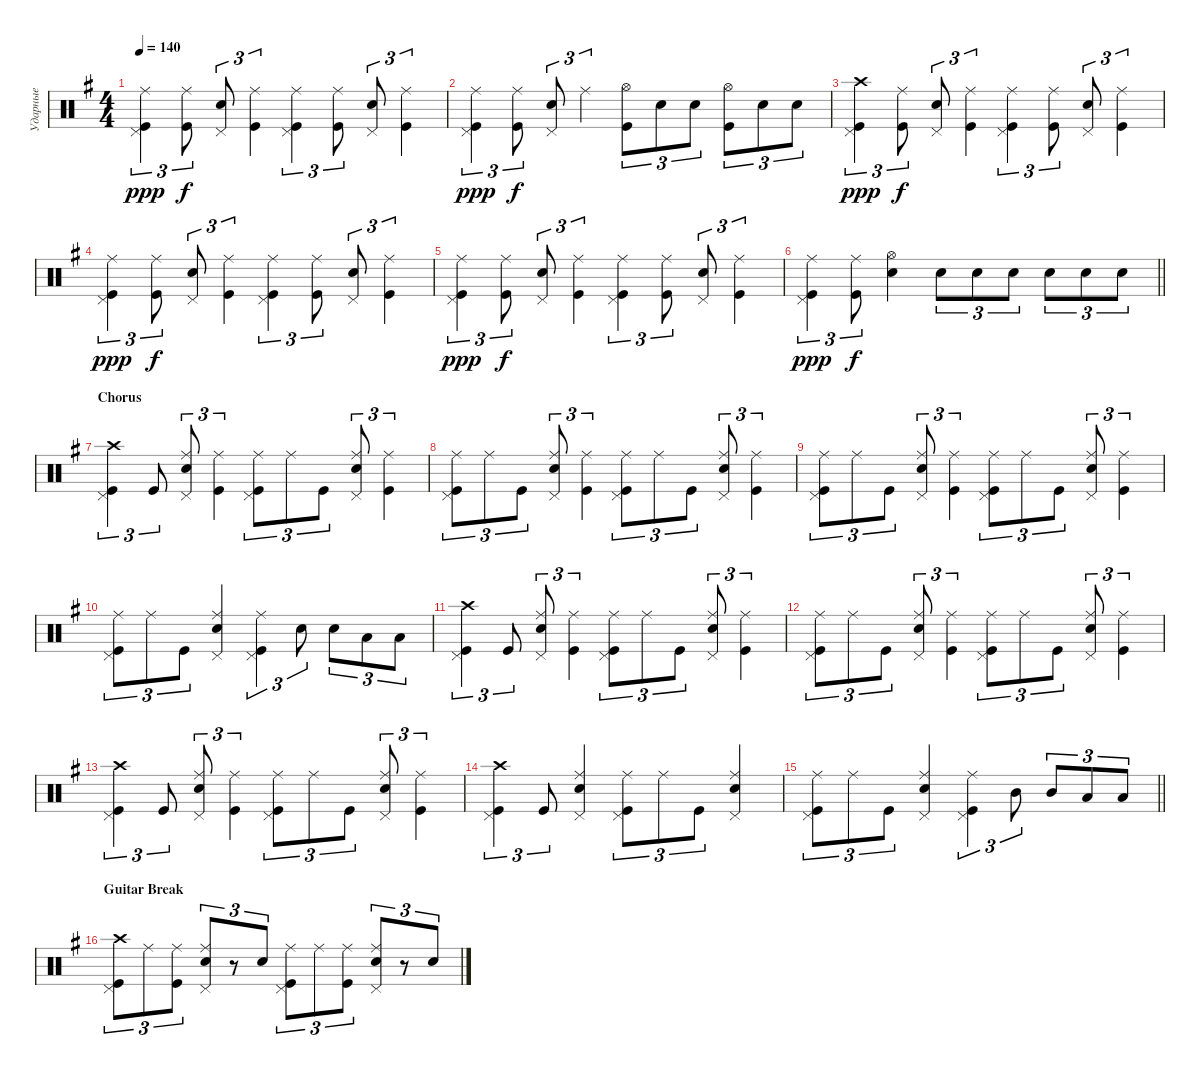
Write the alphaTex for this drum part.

\track ("Ударные" "Ударные") {instrument percussion}
\staff {score}
\articulation defaults
\ts (4 4)
\tempo 140
\clef neutral
\ks eminor
("Kick (hit)" "Pedal Hi-Hat (hit)" "Ride (middle)").4{tu (3 2) dy ppp} ("Kick (hit)" "Ride (middle)").8{tu (3 2) dy f} ("Snare (hit) 2" "Pedal Hi-Hat (hit)").8{tu (3 2)} ("Kick (hit)" "Ride (middle)").4{tu (3 2)} ("Kick (hit)" "Pedal Hi-Hat (hit)" "Ride (middle)").4{tu (3 2)} ("Kick (hit)" "Ride (middle)").8{tu (3 2)} ("Snare (hit) 2" "Pedal Hi-Hat (hit)").8{tu (3 2)} ("Kick (hit)" "Ride (middle)").4{tu (3 2)} |
("Kick (hit)" "Pedal Hi-Hat (hit)" "Ride (middle)").4{tu (3 2) dy ppp} ("Kick (hit)" "Ride (middle)").8{tu (3 2) dy f} ("Snare (hit) 2" "Pedal Hi-Hat (hit)").8{tu (3 2)} "Ride (middle)".4{tu (3 2)} ("Kick (hit)" "Hi-Hat (open)").8{tu (3 2)} "Snare (hit) 2".8{tu (3 2)} "Snare (hit) 2".8{tu (3 2)} ("Kick (hit)" "Hi-Hat (open)").8{tu (3 2)} "Snare (hit) 2".8{tu (3 2)} "Snare (hit) 2".8{tu (3 2)} |
("Kick (hit)" "Pedal Hi-Hat (hit)" "Crash high (hit)").4{tu (3 2) dy ppp} ("Kick (hit)" "Ride (middle)").8{tu (3 2) dy f} ("Snare (hit) 2" "Pedal Hi-Hat (hit)").8{tu (3 2)} ("Kick (hit)" "Ride (middle)").4{tu (3 2)} ("Kick (hit)" "Pedal Hi-Hat (hit)" "Ride (middle)").4{tu (3 2)} ("Kick (hit)" "Ride (middle)").8{tu (3 2)} ("Snare (hit) 2" "Pedal Hi-Hat (hit)").8{tu (3 2)} ("Kick (hit)" "Ride (middle)").4{tu (3 2)} |
("Kick (hit)" "Pedal Hi-Hat (hit)" "Ride (middle)").4{tu (3 2) dy ppp} ("Kick (hit)" "Ride (middle)").8{tu (3 2) dy f} ("Snare (hit) 2" "Pedal Hi-Hat (hit)").8{tu (3 2)} ("Kick (hit)" "Ride (middle)").4{tu (3 2)} ("Kick (hit)" "Pedal Hi-Hat (hit)" "Ride (middle)").4{tu (3 2)} ("Kick (hit)" "Ride (middle)").8{tu (3 2)} ("Snare (hit) 2" "Pedal Hi-Hat (hit)").8{tu (3 2)} ("Kick (hit)" "Ride (middle)").4{tu (3 2)} |
("Kick (hit)" "Pedal Hi-Hat (hit)" "Ride (middle)").4{tu (3 2) dy ppp} ("Kick (hit)" "Ride (middle)").8{tu (3 2) dy f} ("Snare (hit) 2" "Pedal Hi-Hat (hit)").8{tu (3 2)} ("Kick (hit)" "Ride (middle)").4{tu (3 2)} ("Kick (hit)" "Pedal Hi-Hat (hit)" "Ride (middle)").4{tu (3 2)} ("Kick (hit)" "Ride (middle)").8{tu (3 2)} ("Snare (hit) 2" "Pedal Hi-Hat (hit)").8{tu (3 2)} ("Kick (hit)" "Ride (middle)").4{tu (3 2)} |
\barLineRight lightlight
("Kick (hit)" "Pedal Hi-Hat (hit)" "Ride (middle)").4{tu (3 2) dy ppp} ("Kick (hit)" "Ride (middle)").8{tu (3 2) dy f} ("Snare (hit) 2" "Hi-Hat (open)").4 "Snare (hit) 2".8{tu (3 2)} "Snare (hit) 2".8{tu (3 2)} "Snare (hit) 2".8{tu (3 2)} "Snare (hit) 2".8{tu (3 2)} "Snare (hit) 2".8{tu (3 2)} "Snare (hit) 2".8{tu (3 2)} |
\section ("" "Chorus")
("Kick (hit)" "Crash high (hit)" "Pedal Hi-Hat (hit)").4{tu (3 2)} "Kick (hit)".8{tu (3 2)} ("Snare (hit) 2" "Ride (middle)" "Pedal Hi-Hat (hit)").8{tu (3 2)} ("Kick (hit)" "Ride (middle)").4{tu (3 2)} ("Kick (hit)" "Ride (middle)" "Pedal Hi-Hat (hit)").8{tu (3 2)} "Ride (middle)".8{tu (3 2)} "Kick (hit)".8{tu (3 2)} ("Snare (hit) 2" "Ride (middle)" "Pedal Hi-Hat (hit)").8{tu (3 2)} ("Kick (hit)" "Ride (middle)").4{tu (3 2)} |
("Kick (hit)" "Ride (middle)" "Pedal Hi-Hat (hit)").8{tu (3 2)} "Ride (middle)".8{tu (3 2)} "Kick (hit)".8{tu (3 2)} ("Snare (hit) 2" "Ride (middle)" "Pedal Hi-Hat (hit)").8{tu (3 2)} ("Kick (hit)" "Ride (middle)").4{tu (3 2)} ("Kick (hit)" "Ride (middle)" "Pedal Hi-Hat (hit)").8{tu (3 2)} "Ride (middle)".8{tu (3 2)} "Kick (hit)".8{tu (3 2)} ("Snare (hit) 2" "Ride (middle)" "Pedal Hi-Hat (hit)").8{tu (3 2)} ("Kick (hit)" "Ride (middle)").4{tu (3 2)} |
("Kick (hit)" "Ride (middle)" "Pedal Hi-Hat (hit)").8{tu (3 2)} "Ride (middle)".8{tu (3 2)} "Kick (hit)".8{tu (3 2)} ("Snare (hit) 2" "Ride (middle)" "Pedal Hi-Hat (hit)").8{tu (3 2)} ("Kick (hit)" "Ride (middle)").4{tu (3 2)} ("Kick (hit)" "Ride (middle)" "Pedal Hi-Hat (hit)").8{tu (3 2)} "Ride (middle)".8{tu (3 2)} "Kick (hit)".8{tu (3 2)} ("Snare (hit) 2" "Ride (middle)" "Pedal Hi-Hat (hit)").8{tu (3 2)} ("Kick (hit)" "Ride (middle)").4{tu (3 2)} |
("Kick (hit)" "Ride (middle)" "Pedal Hi-Hat (hit)").8{tu (3 2)} "Ride (middle)".8{tu (3 2)} "Kick (hit)".8{tu (3 2)} ("Snare (hit) 2" "Ride (middle)" "Pedal Hi-Hat (hit)").4 ("Kick (hit)" "Ride (middle)" "Pedal Hi-Hat (hit)").4{tu (3 2)} "Snare (hit) 2".8{tu (3 2)} "Snare (hit) 2".8{tu (3 2)} "Low Tom (hit)".8{tu (3 2)} "Low Tom (hit)".8{tu (3 2)} |
("Kick (hit)" "Crash high (hit)" "Pedal Hi-Hat (hit)").4{tu (3 2)} "Kick (hit)".8{tu (3 2)} ("Snare (hit) 2" "Ride (middle)" "Pedal Hi-Hat (hit)").8{tu (3 2)} ("Kick (hit)" "Ride (middle)").4{tu (3 2)} ("Kick (hit)" "Ride (middle)" "Pedal Hi-Hat (hit)").8{tu (3 2)} "Ride (middle)".8{tu (3 2)} "Kick (hit)".8{tu (3 2)} ("Snare (hit) 2" "Ride (middle)" "Pedal Hi-Hat (hit)").8{tu (3 2)} ("Kick (hit)" "Ride (middle)").4{tu (3 2)} |
("Kick (hit)" "Ride (middle)" "Pedal Hi-Hat (hit)").8{tu (3 2)} "Ride (middle)".8{tu (3 2)} "Kick (hit)".8{tu (3 2)} ("Snare (hit) 2" "Ride (middle)" "Pedal Hi-Hat (hit)").8{tu (3 2)} ("Kick (hit)" "Ride (middle)").4{tu (3 2)} ("Kick (hit)" "Ride (middle)" "Pedal Hi-Hat (hit)").8{tu (3 2)} "Ride (middle)".8{tu (3 2)} "Kick (hit)".8{tu (3 2)} ("Snare (hit) 2" "Ride (middle)" "Pedal Hi-Hat (hit)").8{tu (3 2)} ("Kick (hit)" "Ride (middle)").4{tu (3 2)} |
("Kick (hit)" "Crash high (hit)" "Pedal Hi-Hat (hit)").4{tu (3 2)} "Kick (hit)".8{tu (3 2)} ("Snare (hit) 2" "Ride (middle)" "Pedal Hi-Hat (hit)").8{tu (3 2)} ("Kick (hit)" "Ride (middle)").4{tu (3 2)} ("Kick (hit)" "Ride (middle)" "Pedal Hi-Hat (hit)").8{tu (3 2)} "Ride (middle)".8{tu (3 2)} "Kick (hit)".8{tu (3 2)} ("Snare (hit) 2" "Ride (middle)" "Pedal Hi-Hat (hit)").8{tu (3 2)} ("Kick (hit)" "Ride (middle)").4{tu (3 2)} |
("Kick (hit)" "Crash high (hit)" "Pedal Hi-Hat (hit)").4{tu (3 2)} "Kick (hit)".8{tu (3 2)} ("Snare (hit) 2" "Ride (middle)" "Pedal Hi-Hat (hit)").4 ("Kick (hit)" "Ride (middle)" "Pedal Hi-Hat (hit)").8{tu (3 2)} "Ride (middle)".8{tu (3 2)} "Kick (hit)".8{tu (3 2)} ("Snare (hit) 2" "Ride (middle)" "Pedal Hi-Hat (hit)").4 |
\barLineRight lightlight
("Kick (hit)" "Ride (middle)" "Pedal Hi-Hat (hit)").8{tu (3 2)} "Ride (middle)".8{tu (3 2)} "Kick (hit)".8{tu (3 2)} ("Snare (hit) 2" "Ride (middle)" "Pedal Hi-Hat (hit)").4 ("Kick (hit)" "Pedal Hi-Hat (hit)" "Ride (middle)").4{tu (3 2)} "Mid Tom (hit)".8{tu (3 2)} "Mid Tom (hit)".8{tu (3 2)} "Low Tom (hit)".8{tu (3 2)} "Low Tom (hit)".8{tu (3 2)} |
\section ("" "Guitar Break")
("Kick (hit)" "Crash high (hit)" "Pedal Hi-Hat (hit)").8{tu (3 2)} "Ride (middle)".8{tu (3 2)} ("Kick (hit)" "Ride (middle)").8{tu (3 2)} ("Snare (hit) 2" "Ride (middle)" "Pedal Hi-Hat (hit)").8{tu (3 2)} r.8{tu (3 2)} "Snare (hit) 2".8{tu (3 2)} ("Kick (hit)" "Ride (middle)" "Pedal Hi-Hat (hit)").8{tu (3 2)} "Ride (middle)".8{tu (3 2)} ("Kick (hit)" "Ride (middle)").8{tu (3 2)} ("Snare (hit) 2" "Ride (middle)" "Pedal Hi-Hat (hit)").8{tu (3 2)} r.8{tu (3 2)} "Snare (hit) 2".8{tu (3 2)}
